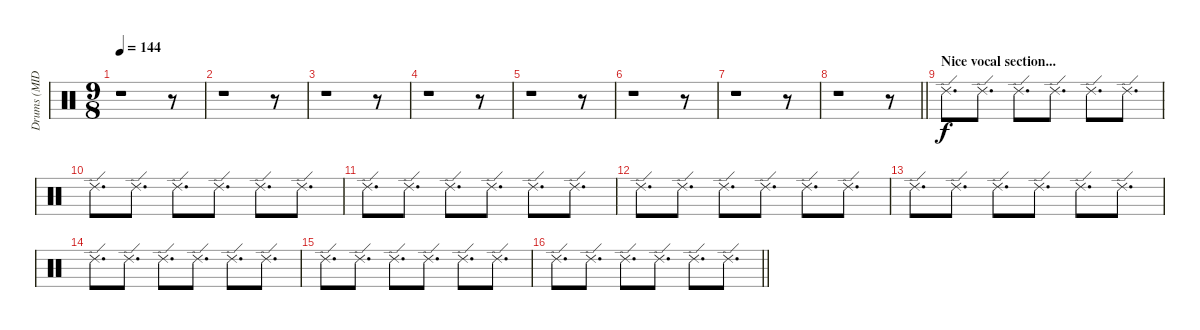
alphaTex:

\track ("Drums (MIDI!)" "Drums (MID") {instrument percussion}
\staff {score}
\articulation defaults
\ts (9 8)
\tempo 144
\clef neutral
\ks c
r.1{dy f} r.8 |
r.1 r.8 |
r.1 r.8 |
r.1 r.8 |
r.1 r.8 |
r.1 r.8 |
r.1 r.8 |
\barLineRight lightlight
r.1 r.8 |
\section ("" "Nice vocal section...")
"Ride (edge) 2".8{d} "Ride (edge) 2".8{d} "Ride (edge) 2".8{d} "Ride (edge) 2".8{d} "Ride (edge) 2".8{d} "Ride (edge) 2".8{d} |
"Ride (edge) 2".8{d} "Ride (edge) 2".8{d} "Ride (edge) 2".8{d} "Ride (edge) 2".8{d} "Ride (edge) 2".8{d} "Ride (edge) 2".8{d} |
"Ride (edge) 2".8{d} "Ride (edge) 2".8{d} "Ride (edge) 2".8{d} "Ride (edge) 2".8{d} "Ride (edge) 2".8{d} "Ride (edge) 2".8{d} |
"Ride (edge) 2".8{d} "Ride (edge) 2".8{d} "Ride (edge) 2".8{d} "Ride (edge) 2".8{d} "Ride (edge) 2".8{d} "Ride (edge) 2".8{d} |
"Ride (edge) 2".8{d} "Ride (edge) 2".8{d} "Ride (edge) 2".8{d} "Ride (edge) 2".8{d} "Ride (edge) 2".8{d} "Ride (edge) 2".8{d} |
"Ride (edge) 2".8{d} "Ride (edge) 2".8{d} "Ride (edge) 2".8{d} "Ride (edge) 2".8{d} "Ride (edge) 2".8{d} "Ride (edge) 2".8{d} |
"Ride (edge) 2".8{d} "Ride (edge) 2".8{d} "Ride (edge) 2".8{d} "Ride (edge) 2".8{d} "Ride (edge) 2".8{d} "Ride (edge) 2".8{d} |
\barLineRight lightlight "Ride (edge) 2".8{d} "Ride (edge) 2".8{d} "Ride (edge) 2".8{d} "Ride (edge) 2".8{d} "Ride (edge) 2".8{d} "Ride (edge) 2".8{d}
